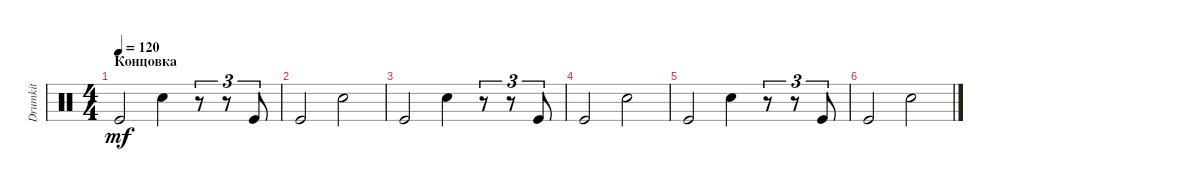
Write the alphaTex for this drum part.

\track ("Drumkit" "Drumkit") {instrument percussion}
\staff {score}
\articulation defaults
\ts (4 4)
\section ("" "Концовка")
\tempo 120
\clef neutral
\ks c "Kick (hit)".2{dy mf} "Snare (hit) 2".4
r.8{tu (3 2)} r.8{tu (3 2)} "Kick (hit)".8{tu (3 2)} |
"Kick (hit)".2 "Snare (hit) 2".2 |
"Kick (hit)".2 "Snare (hit) 2".4 r.8{tu (3 2)} r.8{tu (3 2)} "Kick (hit)".8{tu (3 2)} |
"Kick (hit)".2 "Snare (hit) 2".2 |
"Kick (hit)".2 "Snare (hit) 2".4 r.8{tu (3 2)} r.8{tu (3 2)} "Kick (hit)".8{tu (3 2)} |
"Kick (hit)".2 "Snare (hit) 2".2
